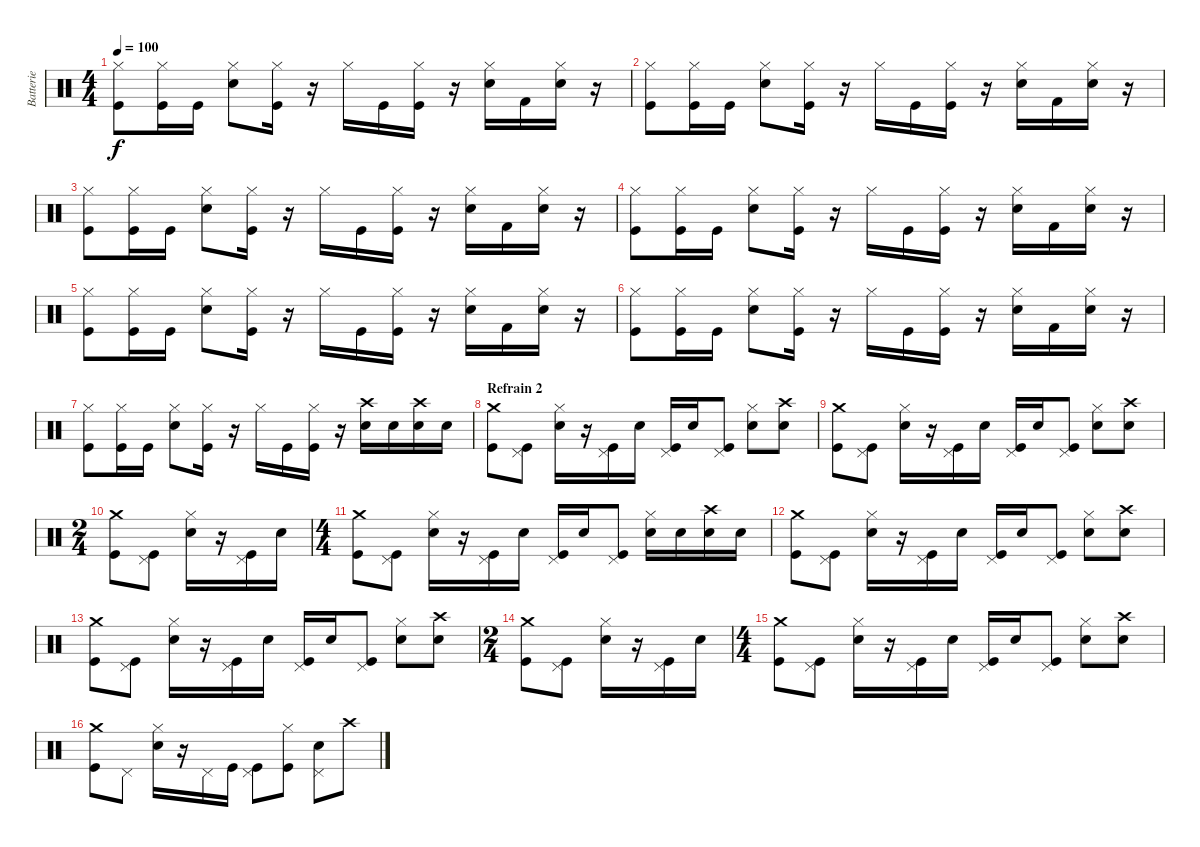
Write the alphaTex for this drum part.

\track ("Batterie" "Batterie") {instrument percussion}
\staff {score}
\articulation defaults
\ts (4 4)
\tempo 100
\clef neutral
\ks c
("Hi-Hat (closed)" "Kick (hit)").8{dy f} ("Hi-Hat (closed)" "Kick (hit)").16 "Kick (hit)".16 ("Hi-Hat (closed)" "Electric Snare (hit)").8 ("Hi-Hat (closed)" "Kick (hit)").16 r.16 "Hi-Hat (closed)".16 "Kick (hit)".16 ("Hi-Hat (closed)" "Kick (hit)").16 r.16 ("Hi-Hat (closed)" "Electric Snare (hit)").16 "Kick (hit) 2".16 ("Hi-Hat (closed)" "Electric Snare (hit)").16 r.16 |
("Hi-Hat (closed)" "Kick (hit)").8 ("Hi-Hat (closed)" "Kick (hit)").16 "Kick (hit)".16 ("Hi-Hat (closed)" "Electric Snare (hit)").8 ("Hi-Hat (closed)" "Kick (hit)").16 r.16 "Hi-Hat (closed)".16 "Kick (hit)".16 ("Hi-Hat (closed)" "Kick (hit)").16 r.16 ("Hi-Hat (closed)" "Electric Snare (hit)").16 "Kick (hit) 2".16 ("Hi-Hat (closed)" "Electric Snare (hit)").16 r.16 |
("Hi-Hat (closed)" "Kick (hit)").8 ("Hi-Hat (closed)" "Kick (hit)").16 "Kick (hit)".16 ("Hi-Hat (closed)" "Electric Snare (hit)").8 ("Hi-Hat (closed)" "Kick (hit)").16 r.16 "Hi-Hat (closed)".16 "Kick (hit)".16 ("Hi-Hat (closed)" "Kick (hit)").16 r.16 ("Hi-Hat (closed)" "Electric Snare (hit)").16 "Kick (hit) 2".16 ("Hi-Hat (closed)" "Electric Snare (hit)").16 r.16 |
("Hi-Hat (closed)" "Kick (hit)").8 ("Hi-Hat (closed)" "Kick (hit)").16 "Kick (hit)".16 ("Hi-Hat (closed)" "Electric Snare (hit)").8 ("Hi-Hat (closed)" "Kick (hit)").16 r.16 "Hi-Hat (closed)".16 "Kick (hit)".16 ("Hi-Hat (closed)" "Kick (hit)").16 r.16 ("Hi-Hat (closed)" "Electric Snare (hit)").16 "Kick (hit) 2".16 ("Hi-Hat (closed)" "Electric Snare (hit)").16 r.16 |
("Hi-Hat (closed)" "Kick (hit)").8 ("Hi-Hat (closed)" "Kick (hit)").16 "Kick (hit)".16 ("Hi-Hat (closed)" "Electric Snare (hit)").8 ("Hi-Hat (closed)" "Kick (hit)").16 r.16 "Hi-Hat (closed)".16 "Kick (hit)".16 ("Hi-Hat (closed)" "Kick (hit)").16 r.16 ("Hi-Hat (closed)" "Electric Snare (hit)").16 "Kick (hit) 2".16 ("Hi-Hat (closed)" "Electric Snare (hit)").16 r.16 |
("Hi-Hat (closed)" "Kick (hit)").8 ("Hi-Hat (closed)" "Kick (hit)").16 "Kick (hit)".16 ("Hi-Hat (closed)" "Electric Snare (hit)").8 ("Hi-Hat (closed)" "Kick (hit)").16 r.16 "Hi-Hat (closed)".16 "Kick (hit)".16 ("Hi-Hat (closed)" "Kick (hit)").16 r.16 ("Hi-Hat (closed)" "Electric Snare (hit)").16 "Kick (hit) 2".16 ("Hi-Hat (closed)" "Electric Snare (hit)").16 r.16 |
("Hi-Hat (closed)" "Kick (hit)").8 ("Hi-Hat (closed)" "Kick (hit)").16 "Kick (hit)".16 ("Hi-Hat (closed)" "Electric Snare (hit)").8 ("Hi-Hat (closed)" "Kick (hit)").16 r.16 "Hi-Hat (closed)".16 "Kick (hit)".16 ("Hi-Hat (closed)" "Kick (hit)").16 r.16 ("Crash high (hit)" "Electric Snare (hit)").16 "Electric Snare (hit)".16 ("Crash high (hit)" "Electric Snare (hit)").16 "Electric Snare (hit)".16 |
\section ("" "Refrain 2")
("Crash medium (hit)" "Kick (hit)").8 ("Pedal Hi-Hat (hit)" "Kick (hit)").8 ("Hi-Hat (closed)" "Electric Snare (hit)").16 r.16 ("Pedal Hi-Hat (hit)" "Kick (hit)").16 "Electric Snare (hit)".16 ("Pedal Hi-Hat (hit)" "Kick (hit)").16 "Electric Snare (hit)".16 ("Pedal Hi-Hat (hit)" "Kick (hit)").8 ("Hi-Hat (closed)" "Electric Snare (hit)").8 ("Crash high (hit)" "Electric Snare (hit)").8 |
("Crash medium (hit)" "Kick (hit)").8 ("Pedal Hi-Hat (hit)" "Kick (hit)").8 ("Hi-Hat (closed)" "Electric Snare (hit)").16 r.16 ("Pedal Hi-Hat (hit)" "Kick (hit)").16 "Electric Snare (hit)".16 ("Pedal Hi-Hat (hit)" "Kick (hit)").16 "Electric Snare (hit)".16 ("Pedal Hi-Hat (hit)" "Kick (hit)").8 ("Hi-Hat (closed)" "Electric Snare (hit)").8 ("Crash high (hit)" "Electric Snare (hit)").8 |
\ts (2 4)
("Crash medium (hit)" "Kick (hit)").8 ("Pedal Hi-Hat (hit)" "Kick (hit)").8 ("Hi-Hat (closed)" "Electric Snare (hit)").16 r.16 ("Pedal Hi-Hat (hit)" "Kick (hit)").16 "Electric Snare (hit)".16 |
\ts (4 4)
("Crash medium (hit)" "Kick (hit)").8 ("Pedal Hi-Hat (hit)" "Kick (hit)").8 ("Hi-Hat (closed)" "Electric Snare (hit)").16 r.16 ("Pedal Hi-Hat (hit)" "Kick (hit)").16 "Electric Snare (hit)".16 ("Pedal Hi-Hat (hit)" "Kick (hit)").16 "Electric Snare (hit)".16 ("Pedal Hi-Hat (hit)" "Kick (hit)").8 ("Hi-Hat (closed)" "Electric Snare (hit)").16 "Electric Snare (hit)".16 ("Crash high (hit)" "Electric Snare (hit)").16 "Electric Snare (hit)".16 |
("Crash medium (hit)" "Kick (hit)").8 ("Pedal Hi-Hat (hit)" "Kick (hit)").8 ("Hi-Hat (closed)" "Electric Snare (hit)").16 r.16 ("Pedal Hi-Hat (hit)" "Kick (hit)").16 "Electric Snare (hit)".16 ("Pedal Hi-Hat (hit)" "Kick (hit)").16 "Electric Snare (hit)".16 ("Pedal Hi-Hat (hit)" "Kick (hit)").8 ("Hi-Hat (closed)" "Electric Snare (hit)").8 ("Crash high (hit)" "Electric Snare (hit)").8 |
("Crash medium (hit)" "Kick (hit)").8 ("Pedal Hi-Hat (hit)" "Kick (hit)").8 ("Hi-Hat (closed)" "Electric Snare (hit)").16 r.16 ("Pedal Hi-Hat (hit)" "Kick (hit)").16 "Electric Snare (hit)".16 ("Pedal Hi-Hat (hit)" "Kick (hit)").16 "Electric Snare (hit)".16 ("Pedal Hi-Hat (hit)" "Kick (hit)").8 ("Hi-Hat (closed)" "Electric Snare (hit)").8 ("Crash high (hit)" "Electric Snare (hit)").8 |
\ts (2 4)
("Crash medium (hit)" "Kick (hit)").8 ("Pedal Hi-Hat (hit)" "Kick (hit)").8 ("Hi-Hat (closed)" "Electric Snare (hit)").16 r.16 ("Pedal Hi-Hat (hit)" "Kick (hit)").16 "Electric Snare (hit)".16 |
\ts (4 4)
("Crash medium (hit)" "Kick (hit)").8 ("Pedal Hi-Hat (hit)" "Kick (hit)").8 ("Hi-Hat (closed)" "Electric Snare (hit)").16 r.16 ("Pedal Hi-Hat (hit)" "Kick (hit)").16 "Electric Snare (hit)".16 ("Pedal Hi-Hat (hit)" "Kick (hit)").16 "Electric Snare (hit)".16 ("Pedal Hi-Hat (hit)" "Kick (hit)").8 ("Hi-Hat (closed)" "Electric Snare (hit)").8 ("Crash high (hit)" "Electric Snare (hit)").8 |
("Crash medium (hit)" "Kick (hit)").8 "Pedal Hi-Hat (hit)".8 ("Hi-Hat (closed)" "Electric Snare (hit)").16 r.16 "Pedal Hi-Hat (hit)".16 "Kick (hit)".16 ("Pedal Hi-Hat (hit)" "Kick (hit)").8 ("Hi-Hat (closed)" "Kick (hit)").8 ("Pedal Hi-Hat (hit)" "Electric Snare (hit)").8 "Crash high (hit)".8
